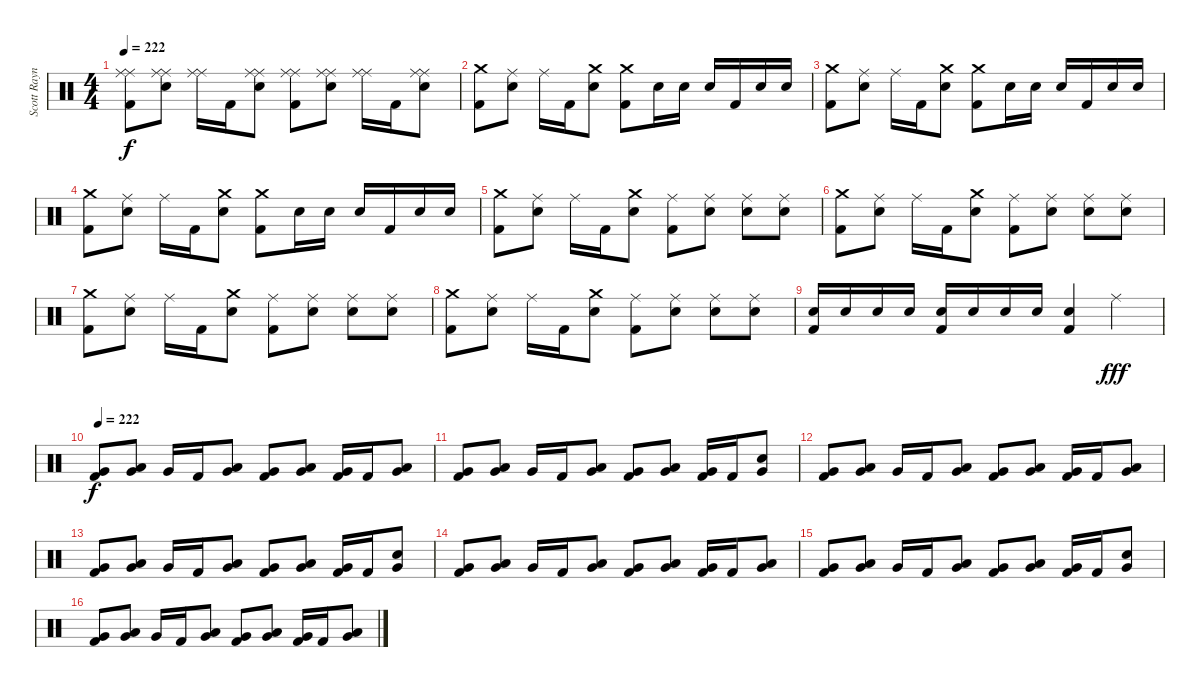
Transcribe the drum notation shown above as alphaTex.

\track ("Scott Raynor - Bateria/Drums" "Scott Rayn") {instrument percussion}
\staff {score}
\articulation defaults
\ts (4 4)
\tempo 222
\clef neutral
\ks c
("Ride (middle)" "Ride (middle)" "Kick (hit) 2").8{dy f} ("Ride (middle)" "Ride (middle)" "Electric Snare (hit)").8 ("Ride (middle)" "Ride (middle)").16 "Kick (hit) 2".16 ("Ride (middle)" "Ride (middle)" "Electric Snare (hit)").8 ("Ride (middle)" "Ride (middle)" "Kick (hit) 2").8 ("Ride (middle)" "Ride (middle)" "Electric Snare (hit)").8 ("Ride (middle)" "Ride (middle)").16 "Kick (hit) 2".16 ("Ride (middle)" "Ride (middle)" "Electric Snare (hit)").8 |
("Crash medium (hit)" "Kick (hit) 2").8 ("Ride (middle)" "Electric Snare (hit)").8 "Ride (middle)".16 "Kick (hit) 2".16 ("Crash medium (hit)" "Electric Snare (hit)").8 ("Crash medium (hit)" "Kick (hit) 2").8 "Electric Snare (hit)".16 "Electric Snare (hit)".16 "Electric Snare (hit)".16 "Kick (hit) 2".16 "Electric Snare (hit)".16 "Electric Snare (hit)".16 |
("Crash medium (hit)" "Kick (hit) 2").8 ("Ride (middle)" "Electric Snare (hit)").8 "Ride (middle)".16 "Kick (hit) 2".16 ("Crash medium (hit)" "Electric Snare (hit)").8 ("Crash medium (hit)" "Kick (hit) 2").8 "Electric Snare (hit)".16 "Electric Snare (hit)".16 "Electric Snare (hit)".16 "Kick (hit) 2".16 "Electric Snare (hit)".16 "Electric Snare (hit)".16 |
("Crash medium (hit)" "Kick (hit) 2").8 ("Ride (middle)" "Electric Snare (hit)").8 "Ride (middle)".16 "Kick (hit) 2".16 ("Crash medium (hit)" "Electric Snare (hit)").8 ("Crash medium (hit)" "Kick (hit) 2").8 "Electric Snare (hit)".16 "Electric Snare (hit)".16 "Electric Snare (hit)".16 "Kick (hit) 2".16 "Electric Snare (hit)".16 "Electric Snare (hit)".16 |
("Crash medium (hit)" "Kick (hit) 2").8 ("Ride (middle)" "Electric Snare (hit)").8 "Ride (middle)".16 "Kick (hit) 2".16 ("Crash medium (hit)" "Electric Snare (hit)").8 ("Ride (middle)" "Kick (hit) 2").8 ("Ride (middle)" "Electric Snare (hit)").8 ("Ride (middle)" "Electric Snare (hit)").8 ("Ride (middle)" "Electric Snare (hit)").8 |
("Crash medium (hit)" "Kick (hit) 2").8 ("Ride (middle)" "Electric Snare (hit)").8 "Ride (middle)".16 "Kick (hit) 2".16 ("Crash medium (hit)" "Electric Snare (hit)").8 ("Ride (middle)" "Kick (hit) 2").8 ("Ride (middle)" "Electric Snare (hit)").8 ("Ride (middle)" "Electric Snare (hit)").8 ("Ride (middle)" "Electric Snare (hit)").8 |
("Crash medium (hit)" "Kick (hit) 2").8 ("Ride (middle)" "Electric Snare (hit)").8 "Ride (middle)".16 "Kick (hit) 2".16 ("Crash medium (hit)" "Electric Snare (hit)").8 ("Ride (middle)" "Kick (hit) 2").8 ("Ride (middle)" "Electric Snare (hit)").8 ("Ride (middle)" "Electric Snare (hit)").8 ("Ride (middle)" "Electric Snare (hit)").8 |
("Crash medium (hit)" "Kick (hit) 2").8 ("Ride (middle)" "Electric Snare (hit)").8 "Ride (middle)".16 "Kick (hit) 2".16 ("Crash medium (hit)" "Electric Snare (hit)").8 ("Ride (middle)" "Kick (hit) 2").8 ("Ride (middle)" "Electric Snare (hit)").8 ("Ride (middle)" "Electric Snare (hit)").8 ("Ride (middle)" "Electric Snare (hit)").8 |
("Electric Snare (hit)" "Kick (hit) 2").16 "Electric Snare (hit)".16 "Electric Snare (hit)".16 "Electric Snare (hit)".16 ("Electric Snare (hit)" "Kick (hit) 2").16 "Electric Snare (hit)".16 "Electric Snare (hit)".16 "Electric Snare (hit)".16 ("Electric Snare (hit)" "Kick (hit) 2").4 "Ride (middle)".4{dy fff} |
\tempo 222
("Very Low Tom (hit)" "Kick (hit) 2").8{dy f} ("Low Tom (hit)" "Very Low Tom (hit)").8 "Very Low Tom (hit)".16 "Kick (hit) 2".16 ("Low Tom (hit)" "Very Low Tom (hit)").8 ("Very Low Tom (hit)" "Kick (hit) 2").8 ("Low Tom (hit)" "Very Low Tom (hit)").8 ("Very Low Tom (hit)" "Kick (hit) 2").16 "Kick (hit) 2".16 ("Low Tom (hit)" "Very Low Tom (hit)").8 |
("Very Low Tom (hit)" "Kick (hit) 2").8 ("Low Tom (hit)" "Very Low Tom (hit)").8 "Very Low Tom (hit)".16 "Kick (hit) 2".16 ("Low Tom (hit)" "Very Low Tom (hit)").8 ("Very Low Tom (hit)" "Kick (hit) 2").8 ("Low Tom (hit)" "Very Low Tom (hit)").8 ("Very Low Tom (hit)" "Kick (hit) 2").16 "Kick (hit) 2".16 ("Electric Snare (hit)" "Very Low Tom (hit)").8 |
("Very Low Tom (hit)" "Kick (hit) 2").8 ("Low Tom (hit)" "Very Low Tom (hit)").8 "Very Low Tom (hit)".16 "Kick (hit) 2".16 ("Low Tom (hit)" "Very Low Tom (hit)").8 ("Very Low Tom (hit)" "Kick (hit) 2").8 ("Low Tom (hit)" "Very Low Tom (hit)").8 ("Very Low Tom (hit)" "Kick (hit) 2").16 "Kick (hit) 2".16 ("Low Tom (hit)" "Very Low Tom (hit)").8 |
("Very Low Tom (hit)" "Kick (hit) 2").8 ("Low Tom (hit)" "Very Low Tom (hit)").8 "Very Low Tom (hit)".16 "Kick (hit) 2".16 ("Low Tom (hit)" "Very Low Tom (hit)").8 ("Very Low Tom (hit)" "Kick (hit) 2").8 ("Low Tom (hit)" "Very Low Tom (hit)").8 ("Very Low Tom (hit)" "Kick (hit) 2").16 "Kick (hit) 2".16 ("Electric Snare (hit)" "Very Low Tom (hit)").8 |
("Very Low Tom (hit)" "Kick (hit) 2").8 ("Low Tom (hit)" "Very Low Tom (hit)").8 "Very Low Tom (hit)".16 "Kick (hit) 2".16 ("Low Tom (hit)" "Very Low Tom (hit)").8 ("Very Low Tom (hit)" "Kick (hit) 2").8 ("Low Tom (hit)" "Very Low Tom (hit)").8 ("Very Low Tom (hit)" "Kick (hit) 2").16 "Kick (hit) 2".16 ("Low Tom (hit)" "Very Low Tom (hit)").8 |
("Very Low Tom (hit)" "Kick (hit) 2").8 ("Low Tom (hit)" "Very Low Tom (hit)").8 "Very Low Tom (hit)".16 "Kick (hit) 2".16 ("Low Tom (hit)" "Very Low Tom (hit)").8 ("Very Low Tom (hit)" "Kick (hit) 2").8 ("Low Tom (hit)" "Very Low Tom (hit)").8 ("Very Low Tom (hit)" "Kick (hit) 2").16 "Kick (hit) 2".16 ("Electric Snare (hit)" "Very Low Tom (hit)").8 |
("Very Low Tom (hit)" "Kick (hit) 2").8 ("Low Tom (hit)" "Very Low Tom (hit)").8 "Very Low Tom (hit)".16 "Kick (hit) 2".16 ("Low Tom (hit)" "Very Low Tom (hit)").8 ("Very Low Tom (hit)" "Kick (hit) 2").8 ("Low Tom (hit)" "Very Low Tom (hit)").8 ("Very Low Tom (hit)" "Kick (hit) 2").16 "Kick (hit) 2".16 ("Low Tom (hit)" "Very Low Tom (hit)").8
